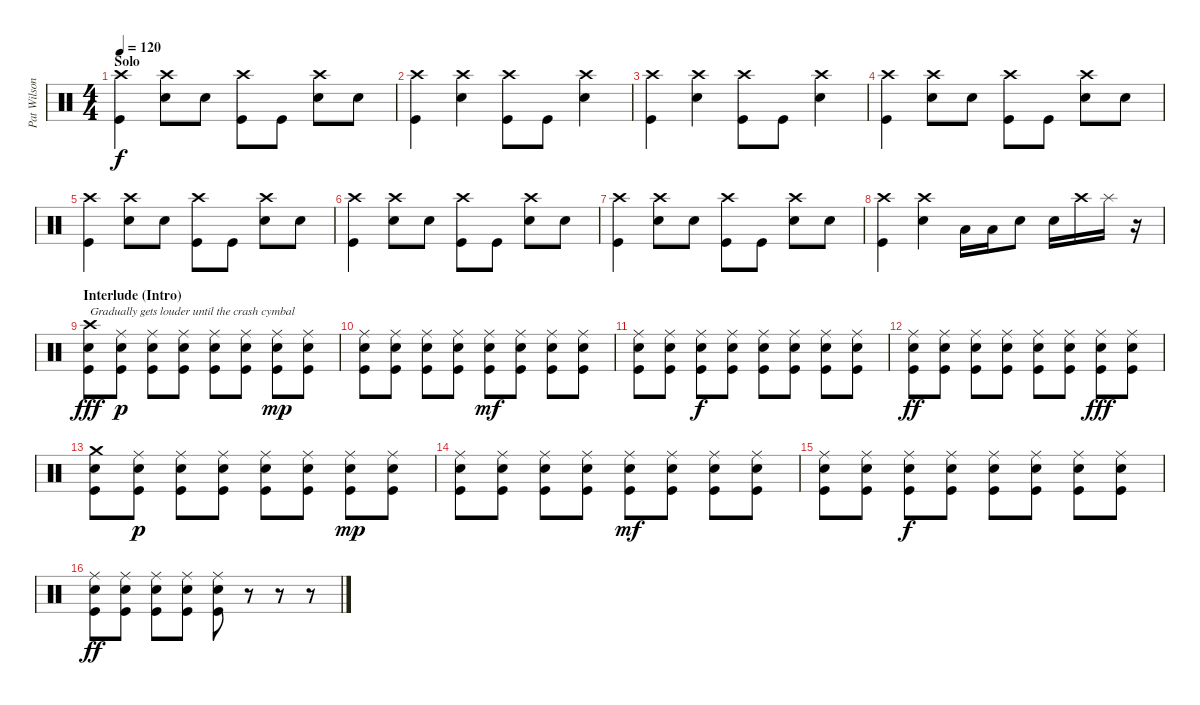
\track ("Pat Wilson" "Pat Wilson") {instrument percussion}
\staff {score}
\articulation defaults
\ts (4 4)
\section ("" "Solo")
\tempo 120
\clef neutral
\ks c
("Crash high (hit)" "Kick (hit)").4{dy f} ("Snare (hit) 2" "Crash high (hit)").8 "Snare (hit) 2".8 ("Crash high (hit)" "Kick (hit)").8 "Kick (hit)".8 ("Snare (hit) 2" "Crash high (hit)").8 "Snare (hit) 2".8 |
("Crash high (hit)" "Kick (hit)").4 ("Snare (hit) 2" "Crash high (hit)").4 ("Crash high (hit)" "Kick (hit)").8 "Kick (hit)".8 ("Snare (hit) 2" "Crash high (hit)").4 |
("Crash high (hit)" "Kick (hit)").4 ("Snare (hit) 2" "Crash high (hit)").4 ("Crash high (hit)" "Kick (hit)").8 "Kick (hit)".8 ("Snare (hit) 2" "Crash high (hit)").4 |
("Crash high (hit)" "Kick (hit)").4 ("Snare (hit) 2" "Crash high (hit)").8 "Snare (hit) 2".8 ("Crash high (hit)" "Kick (hit)").8 "Kick (hit)".8 ("Snare (hit) 2" "Crash high (hit)").8 "Snare (hit) 2".8 |
("Crash high (hit)" "Kick (hit)").4 ("Snare (hit) 2" "Crash high (hit)").8 "Snare (hit) 2".8 ("Crash high (hit)" "Kick (hit)").8 "Kick (hit)".8 ("Snare (hit) 2" "Crash high (hit)").8 "Snare (hit) 2".8 |
("Crash high (hit)" "Kick (hit)").4 ("Snare (hit) 2" "Crash high (hit)").8 "Snare (hit) 2".8 ("Crash high (hit)" "Kick (hit)").8 "Kick (hit)".8 ("Snare (hit) 2" "Crash high (hit)").8 "Snare (hit) 2".8 |
("Crash high (hit)" "Kick (hit)").4 ("Snare (hit) 2" "Crash high (hit)").8 "Snare (hit) 2".8 ("Crash high (hit)" "Kick (hit)").8 "Kick (hit)".8 ("Snare (hit) 2" "Crash high (hit)").8 "Snare (hit) 2".8 |
("Crash high (hit)" "Kick (hit)").4 ("Snare (hit) 2" "Crash high (hit)").4 "Low Tom (hit)".16 "Low Tom (hit)".16 "Snare (hit) 2".8 "Snare (hit) 2".16 "Crash high (hit)".16 "Splash (hit)".16 r.16 |
\section ("" "Interlude (Intro) ")
("Crash high (hit)" "Snare (hit) 2" "Kick (hit)").8{txt "Gradually gets louder until the crash cymbal " dy fff volume 4} ("Ride (middle)" "Snare (hit) 2" "Kick (hit)").8{dy p} ("Ride (middle)" "Snare (hit) 2" "Kick (hit)").8 ("Ride (middle)" "Snare (hit) 2" "Kick (hit)").8 ("Ride (middle)" "Snare (hit) 2" "Kick (hit)").8 ("Ride (middle)" "Snare (hit) 2" "Kick (hit)").8 ("Ride (middle)" "Snare (hit) 2" "Kick (hit)").8{dy mp} ("Ride (middle)" "Snare (hit) 2" "Kick (hit)").8 |
("Ride (middle)" "Snare (hit) 2" "Kick (hit)").8 ("Ride (middle)" "Snare (hit) 2" "Kick (hit)").8 ("Ride (middle)" "Snare (hit) 2" "Kick (hit)").8 ("Ride (middle)" "Snare (hit) 2" "Kick (hit)").8 ("Ride (middle)" "Snare (hit) 2" "Kick (hit)").8{dy mf} ("Ride (middle)" "Snare (hit) 2" "Kick (hit)").8 ("Ride (middle)" "Snare (hit) 2" "Kick (hit)").8 ("Ride (middle)" "Snare (hit) 2" "Kick (hit)").8 |
("Ride (middle)" "Snare (hit) 2" "Kick (hit)").8 ("Ride (middle)" "Snare (hit) 2" "Kick (hit)").8 ("Ride (middle)" "Snare (hit) 2" "Kick (hit)").8{dy f} ("Ride (middle)" "Snare (hit) 2" "Kick (hit)").8 ("Ride (middle)" "Snare (hit) 2" "Kick (hit)").8 ("Ride (middle)" "Snare (hit) 2" "Kick (hit)").8 ("Ride (middle)" "Snare (hit) 2" "Kick (hit)").8 ("Ride (middle)" "Snare (hit) 2" "Kick (hit)").8 |
("Ride (middle)" "Snare (hit) 2" "Kick (hit)").8{dy ff} ("Ride (middle)" "Snare (hit) 2" "Kick (hit)").8 ("Ride (middle)" "Snare (hit) 2" "Kick (hit)").8 ("Ride (middle)" "Snare (hit) 2" "Kick (hit)").8 ("Ride (middle)" "Snare (hit) 2" "Kick (hit)").8 ("Ride (middle)" "Snare (hit) 2" "Kick (hit)").8 ("Ride (middle)" "Snare (hit) 2" "Kick (hit)").8{dy fff} ("Ride (middle)" "Snare (hit) 2" "Kick (hit)").8 |
("Crash medium (hit)" "Snare (hit) 2" "Kick (hit)").8 ("Ride (middle)" "Snare (hit) 2" "Kick (hit)").8{dy p} ("Ride (middle)" "Snare (hit) 2" "Kick (hit)").8 ("Ride (middle)" "Snare (hit) 2" "Kick (hit)").8 ("Ride (middle)" "Snare (hit) 2" "Kick (hit)").8 ("Ride (middle)" "Snare (hit) 2" "Kick (hit)").8 ("Ride (middle)" "Snare (hit) 2" "Kick (hit)").8{dy mp} ("Ride (middle)" "Snare (hit) 2" "Kick (hit)").8 |
("Ride (middle)" "Snare (hit) 2" "Kick (hit)").8 ("Ride (middle)" "Snare (hit) 2" "Kick (hit)").8 ("Ride (middle)" "Snare (hit) 2" "Kick (hit)").8 ("Ride (middle)" "Snare (hit) 2" "Kick (hit)").8 ("Ride (middle)" "Snare (hit) 2" "Kick (hit)").8{dy mf} ("Ride (middle)" "Snare (hit) 2" "Kick (hit)").8 ("Ride (middle)" "Snare (hit) 2" "Kick (hit)").8 ("Ride (middle)" "Snare (hit) 2" "Kick (hit)").8 |
("Ride (middle)" "Snare (hit) 2" "Kick (hit)").8 ("Ride (middle)" "Snare (hit) 2" "Kick (hit)").8 ("Ride (middle)" "Snare (hit) 2" "Kick (hit)").8{dy f} ("Ride (middle)" "Snare (hit) 2" "Kick (hit)").8 ("Ride (middle)" "Snare (hit) 2" "Kick (hit)").8 ("Ride (middle)" "Snare (hit) 2" "Kick (hit)").8 ("Ride (middle)" "Snare (hit) 2" "Kick (hit)").8 ("Ride (middle)" "Snare (hit) 2" "Kick (hit)").8 |
("Ride (middle)" "Snare (hit) 2" "Kick (hit)").8{dy ff} ("Ride (middle)" "Snare (hit) 2" "Kick (hit)").8 ("Ride (middle)" "Snare (hit) 2" "Kick (hit)").8 ("Ride (middle)" "Snare (hit) 2" "Kick (hit)").8 ("Ride (middle)" "Snare (hit) 2" "Kick (hit)").8 r.8 r.8 r.8
